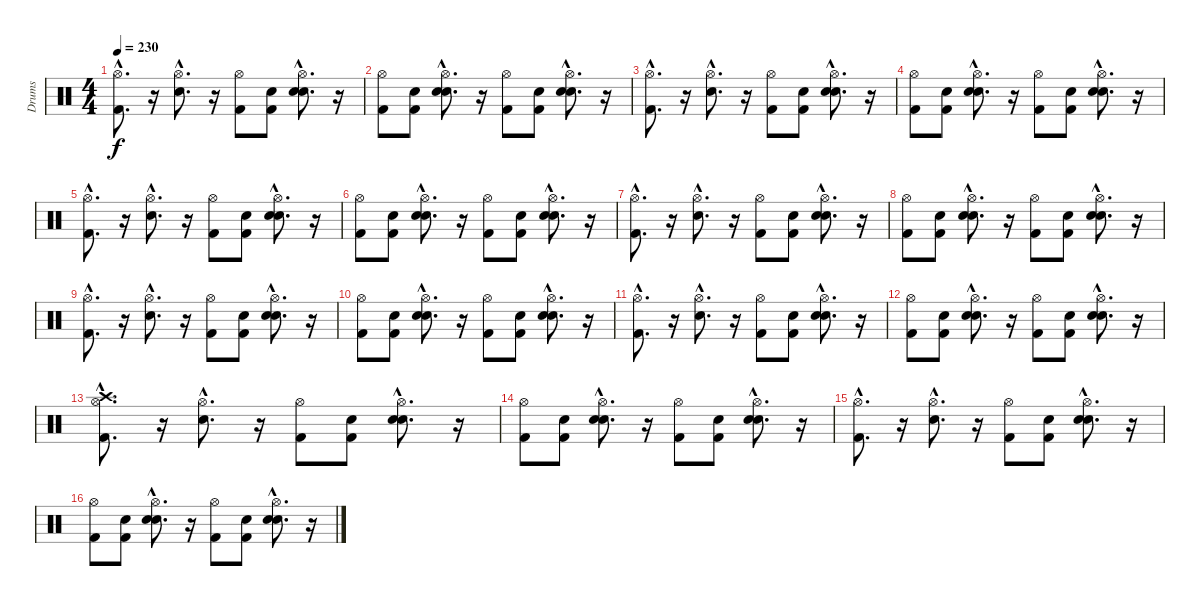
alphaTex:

\track ("Drums" "Drums") {instrument percussion}
\staff {score}
\articulation defaults
\ts (4 4)
\tempo 230
\clef neutral
\ks c
("Kick (hit) 2"{hac} "Hi-Hat (open)"{hac}).8{d dy f} r.16 ("Snare (hit) 2"{hac} "Hi-Hat (open)"{hac}).8{d} r.16 ("Kick (hit) 2" "Hi-Hat (open)").8 ("Snare (hit)" "Kick (hit) 2").8 ("Snare (hit)"{hac} "Snare (hit) 2"{hac} "Hi-Hat (open)"{hac}).8{d} r.16 |
("Kick (hit) 2" "Hi-Hat (open)").8 ("Snare (hit)" "Kick (hit) 2").8 ("Snare (hit)"{hac} "Snare (hit) 2"{hac} "Hi-Hat (open)"{hac}).8{d} r.16 ("Kick (hit) 2" "Hi-Hat (open)").8 ("Snare (hit)" "Kick (hit) 2").8 ("Snare (hit)"{hac} "Snare (hit) 2"{hac} "Hi-Hat (open)"{hac}).8{d} r.16 |
("Kick (hit) 2"{hac} "Hi-Hat (open)"{hac}).8{d} r.16 ("Snare (hit) 2"{hac} "Hi-Hat (open)"{hac}).8{d} r.16 ("Kick (hit) 2" "Hi-Hat (open)").8 ("Snare (hit)" "Kick (hit) 2").8 ("Snare (hit)"{hac} "Snare (hit) 2"{hac} "Hi-Hat (open)"{hac}).8{d} r.16 |
("Kick (hit) 2" "Hi-Hat (open)").8 ("Snare (hit)" "Kick (hit) 2").8 ("Snare (hit)"{hac} "Snare (hit) 2"{hac} "Hi-Hat (open)"{hac}).8{d} r.16 ("Kick (hit) 2" "Hi-Hat (open)").8 ("Snare (hit)" "Kick (hit) 2").8 ("Snare (hit)"{hac} "Snare (hit) 2"{hac} "Hi-Hat (open)"{hac}).8{d} r.16 |
("Kick (hit) 2"{hac} "Hi-Hat (open)"{hac}).8{d} r.16 ("Snare (hit) 2"{hac} "Hi-Hat (open)"{hac}).8{d} r.16 ("Kick (hit) 2" "Hi-Hat (open)").8 ("Snare (hit)" "Kick (hit) 2").8 ("Snare (hit)"{hac} "Snare (hit) 2"{hac} "Hi-Hat (open)"{hac}).8{d} r.16 |
("Kick (hit) 2" "Hi-Hat (open)").8 ("Snare (hit)" "Kick (hit) 2").8 ("Snare (hit)"{hac} "Snare (hit) 2"{hac} "Hi-Hat (open)"{hac}).8{d} r.16 ("Kick (hit) 2" "Hi-Hat (open)").8 ("Snare (hit)" "Kick (hit) 2").8 ("Snare (hit)"{hac} "Snare (hit) 2"{hac} "Hi-Hat (open)"{hac}).8{d} r.16 |
("Kick (hit) 2"{hac} "Hi-Hat (open)"{hac}).8{d} r.16 ("Snare (hit) 2"{hac} "Hi-Hat (open)"{hac}).8{d} r.16 ("Kick (hit) 2" "Hi-Hat (open)").8 ("Snare (hit)" "Kick (hit) 2").8 ("Snare (hit)"{hac} "Snare (hit) 2"{hac} "Hi-Hat (open)"{hac}).8{d} r.16 |
("Kick (hit) 2" "Hi-Hat (open)").8 ("Snare (hit)" "Kick (hit) 2").8 ("Snare (hit)"{hac} "Snare (hit) 2"{hac} "Hi-Hat (open)"{hac}).8{d} r.16 ("Kick (hit) 2" "Hi-Hat (open)").8 ("Snare (hit)" "Kick (hit) 2").8 ("Snare (hit)"{hac} "Snare (hit) 2"{hac} "Hi-Hat (open)"{hac}).8{d} r.16 |
("Kick (hit) 2"{hac} "Hi-Hat (open)"{hac}).8{d} r.16 ("Snare (hit) 2"{hac} "Hi-Hat (open)"{hac}).8{d} r.16 ("Kick (hit) 2" "Hi-Hat (open)").8 ("Snare (hit)" "Kick (hit) 2").8 ("Snare (hit)"{hac} "Snare (hit) 2"{hac} "Hi-Hat (open)"{hac}).8{d} r.16 |
("Kick (hit) 2" "Hi-Hat (open)").8 ("Snare (hit)" "Kick (hit) 2").8 ("Snare (hit)"{hac} "Snare (hit) 2"{hac} "Hi-Hat (open)"{hac}).8{d} r.16 ("Kick (hit) 2" "Hi-Hat (open)").8 ("Snare (hit)" "Kick (hit) 2").8 ("Snare (hit)"{hac} "Snare (hit) 2"{hac} "Hi-Hat (open)"{hac}).8{d} r.16 |
("Kick (hit) 2"{hac} "Hi-Hat (open)"{hac}).8{d} r.16 ("Snare (hit) 2"{hac} "Hi-Hat (open)"{hac}).8{d} r.16 ("Kick (hit) 2" "Hi-Hat (open)").8 ("Snare (hit)" "Kick (hit) 2").8 ("Snare (hit)"{hac} "Snare (hit) 2"{hac} "Hi-Hat (open)"{hac}).8{d} r.16 |
("Kick (hit) 2" "Hi-Hat (open)").8 ("Snare (hit)" "Kick (hit) 2").8 ("Snare (hit)"{hac} "Snare (hit) 2"{hac} "Hi-Hat (open)"{hac}).8{d} r.16 ("Kick (hit) 2" "Hi-Hat (open)").8 ("Snare (hit)" "Kick (hit) 2").8 ("Snare (hit)"{hac} "Snare (hit) 2"{hac} "Hi-Hat (open)"{hac}).8{d} r.16 |
("Kick (hit) 2"{hac} "Hi-Hat (open)"{hac} "Crash high (hit)"{hac}).8{d} r.16 ("Snare (hit) 2"{hac} "Hi-Hat (open)"{hac}).8{d} r.16 ("Kick (hit) 2" "Hi-Hat (open)").8 ("Snare (hit)" "Kick (hit) 2").8 ("Snare (hit)"{hac} "Snare (hit) 2"{hac} "Hi-Hat (open)"{hac}).8{d} r.16 |
("Kick (hit) 2" "Hi-Hat (open)").8 ("Snare (hit)" "Kick (hit) 2").8 ("Snare (hit)"{hac} "Snare (hit) 2"{hac} "Hi-Hat (open)"{hac}).8{d} r.16 ("Kick (hit) 2" "Hi-Hat (open)").8 ("Snare (hit)" "Kick (hit) 2").8 ("Snare (hit)"{hac} "Snare (hit) 2"{hac} "Hi-Hat (open)"{hac}).8{d} r.16 |
("Kick (hit) 2"{hac} "Hi-Hat (open)"{hac}).8{d} r.16 ("Snare (hit) 2"{hac} "Hi-Hat (open)"{hac}).8{d} r.16 ("Kick (hit) 2" "Hi-Hat (open)").8 ("Snare (hit)" "Kick (hit) 2").8 ("Snare (hit)"{hac} "Snare (hit) 2"{hac} "Hi-Hat (open)"{hac}).8{d} r.16 |
("Kick (hit) 2" "Hi-Hat (open)").8 ("Snare (hit)" "Kick (hit) 2").8 ("Snare (hit)"{hac} "Snare (hit) 2"{hac} "Hi-Hat (open)"{hac}).8{d} r.16 ("Kick (hit) 2" "Hi-Hat (open)").8 ("Snare (hit)" "Kick (hit) 2").8 ("Snare (hit)"{hac} "Snare (hit) 2"{hac} "Hi-Hat (open)"{hac}).8{d} r.16
